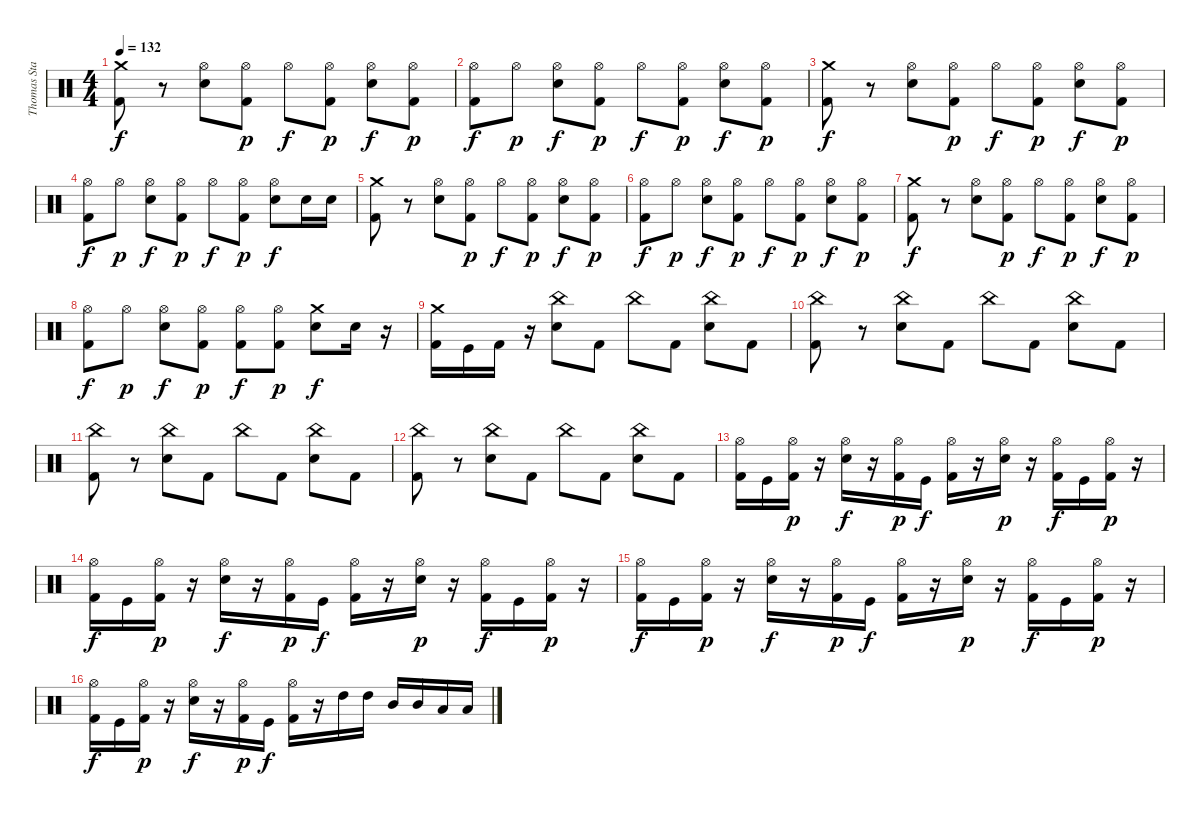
\track ("Thomas Stauch" "Thomas Sta") {instrument percussion}
\staff {score}
\articulation defaults
\ts (4 4)
\tempo 132
\clef neutral
\ks c
("Crash medium (hit)" "Kick (hit) 2").8{dy f} r.8 ("Hi-Hat (open)" "Electric Snare (hit)").8 ("Hi-Hat (open)" "Kick (hit) 2").8{dy p} "Hi-Hat (open)".8{dy f} ("Hi-Hat (open)" "Kick (hit) 2").8{dy p} ("Hi-Hat (open)" "Electric Snare (hit)").8{dy f} ("Hi-Hat (open)" "Kick (hit) 2").8{dy p} |
("Hi-Hat (open)" "Kick (hit) 2").8{dy f} "Hi-Hat (open)".8{dy p} ("Hi-Hat (open)" "Electric Snare (hit)").8{dy f} ("Hi-Hat (open)" "Kick (hit) 2").8{dy p} "Hi-Hat (open)".8{dy f} ("Hi-Hat (open)" "Kick (hit) 2").8{dy p} ("Hi-Hat (open)" "Electric Snare (hit)").8{dy f} ("Hi-Hat (open)" "Kick (hit) 2").8{dy p} |
("Crash medium (hit)" "Kick (hit) 2").8{dy f} r.8 ("Hi-Hat (open)" "Electric Snare (hit)").8 ("Hi-Hat (open)" "Kick (hit) 2").8{dy p} "Hi-Hat (open)".8{dy f} ("Hi-Hat (open)" "Kick (hit) 2").8{dy p} ("Hi-Hat (open)" "Electric Snare (hit)").8{dy f} ("Hi-Hat (open)" "Kick (hit) 2").8{dy p} |
("Hi-Hat (open)" "Kick (hit) 2").8{dy f} "Hi-Hat (open)".8{dy p} ("Hi-Hat (open)" "Electric Snare (hit)").8{dy f} ("Hi-Hat (open)" "Kick (hit) 2").8{dy p} "Hi-Hat (open)".8{dy f} ("Hi-Hat (open)" "Kick (hit) 2").8{dy p} ("Hi-Hat (open)" "Electric Snare (hit)").8{dy f} "Electric Snare (hit)".16 "Electric Snare (hit)".16 |
("Crash medium (hit)" "Kick (hit) 2").8 r.8 ("Hi-Hat (open)" "Electric Snare (hit)").8 ("Hi-Hat (open)" "Kick (hit) 2").8{dy p} "Hi-Hat (open)".8{dy f} ("Hi-Hat (open)" "Kick (hit) 2").8{dy p} ("Hi-Hat (open)" "Electric Snare (hit)").8{dy f} ("Hi-Hat (open)" "Kick (hit) 2").8{dy p} |
("Hi-Hat (open)" "Kick (hit) 2").8{dy f} "Hi-Hat (open)".8{dy p} ("Hi-Hat (open)" "Electric Snare (hit)").8{dy f} ("Hi-Hat (open)" "Kick (hit) 2").8{dy p} "Hi-Hat (open)".8{dy f} ("Hi-Hat (open)" "Kick (hit) 2").8{dy p} ("Hi-Hat (open)" "Electric Snare (hit)").8{dy f} ("Hi-Hat (open)" "Kick (hit) 2").8{dy p} |
("Crash medium (hit)" "Kick (hit) 2").8{dy f} r.8 ("Hi-Hat (open)" "Electric Snare (hit)").8 ("Hi-Hat (open)" "Kick (hit) 2").8{dy p} "Hi-Hat (open)".8{dy f} ("Hi-Hat (open)" "Kick (hit) 2").8{dy p} ("Hi-Hat (open)" "Electric Snare (hit)").8{dy f} ("Hi-Hat (open)" "Kick (hit) 2").8{dy p} |
("Hi-Hat (open)" "Kick (hit) 2").8{dy f} "Hi-Hat (open)".8{dy p} ("Hi-Hat (open)" "Electric Snare (hit)").8{dy f} ("Hi-Hat (open)" "Kick (hit) 2").8{dy p} ("Hi-Hat (open)" "Kick (hit) 2").8{dy f} ("Hi-Hat (open)" "Kick (hit) 2").8{dy p} ("Crash medium (hit)" "Electric Snare (hit)").8{dy f} "Electric Snare (hit)".16 r.16 |
("Crash medium (hit)" "Kick (hit) 2").16 "Kick (hit)".16 "Kick (hit) 2".16 r.16 ("China (hit)" "Electric Snare (hit)").8 "Kick (hit) 2".8 "China (hit)".8 "Kick (hit) 2".8 ("China (hit)" "Electric Snare (hit)").8 "Kick (hit) 2".8 |
("China (hit)" "Kick (hit) 2").8 r.8 ("China (hit)" "Electric Snare (hit)").8 "Kick (hit) 2".8 "China (hit)".8 "Kick (hit) 2".8 ("China (hit)" "Electric Snare (hit)").8 "Kick (hit) 2".8 |
("China (hit)" "Kick (hit) 2").8 r.8 ("China (hit)" "Electric Snare (hit)").8 "Kick (hit) 2".8 "China (hit)".8 "Kick (hit) 2".8 ("China (hit)" "Electric Snare (hit)").8 "Kick (hit) 2".8 |
("China (hit)" "Kick (hit) 2").8 r.8 ("China (hit)" "Electric Snare (hit)").8 "Kick (hit) 2".8 "China (hit)".8 "Kick (hit) 2".8 ("China (hit)" "Electric Snare (hit)").8 "Kick (hit) 2".8 |
("Hi-Hat (open)" "Kick (hit) 2").16 "Kick (hit)".16 ("Hi-Hat (open)" "Kick (hit) 2").16{dy p} r.16 ("Hi-Hat (open)" "Electric Snare (hit)").16{dy f} r.16 ("Hi-Hat (open)" "Kick (hit) 2").16{dy p} "Kick (hit)".16{dy f} ("Hi-Hat (open)" "Kick (hit) 2").16 r.16 ("Hi-Hat (open)" "Electric Snare (hit)").16{dy p} r.16 ("Hi-Hat (open)" "Kick (hit) 2").16{dy f} "Kick (hit)".16 ("Hi-Hat (open)" "Kick (hit) 2").16{dy p} r.16 |
("Hi-Hat (open)" "Kick (hit) 2").16{dy f} "Kick (hit)".16 ("Hi-Hat (open)" "Kick (hit) 2").16{dy p} r.16 ("Hi-Hat (open)" "Electric Snare (hit)").16{dy f} r.16 ("Hi-Hat (open)" "Kick (hit) 2").16{dy p} "Kick (hit)".16{dy f} ("Hi-Hat (open)" "Kick (hit) 2").16 r.16 ("Hi-Hat (open)" "Electric Snare (hit)").16{dy p} r.16 ("Hi-Hat (open)" "Kick (hit) 2").16{dy f} "Kick (hit)".16 ("Hi-Hat (open)" "Kick (hit) 2").16{dy p} r.16 |
("Hi-Hat (open)" "Kick (hit) 2").16{dy f} "Kick (hit)".16 ("Hi-Hat (open)" "Kick (hit) 2").16{dy p} r.16 ("Hi-Hat (open)" "Electric Snare (hit)").16{dy f} r.16 ("Hi-Hat (open)" "Kick (hit) 2").16{dy p} "Kick (hit)".16{dy f} ("Hi-Hat (open)" "Kick (hit) 2").16 r.16 ("Hi-Hat (open)" "Electric Snare (hit)").16{dy p} r.16 ("Hi-Hat (open)" "Kick (hit) 2").16{dy f} "Kick (hit)".16 ("Hi-Hat (open)" "Kick (hit) 2").16{dy p} r.16 |
("Hi-Hat (open)" "Kick (hit) 2").16{dy f} "Kick (hit)".16 ("Hi-Hat (open)" "Kick (hit) 2").16{dy p} r.16 ("Hi-Hat (open)" "Electric Snare (hit)").16{dy f} r.16 ("Hi-Hat (open)" "Kick (hit) 2").16{dy p} "Kick (hit)".16{dy f} ("Hi-Hat (open)" "Kick (hit) 2").16 r.16 "High Tom (hit)".16 "High Tom (hit)".16 "Mid Tom (hit)".16 "Mid Tom (hit)".16 "Low Tom (hit)".16 "Low Tom (hit)".16
